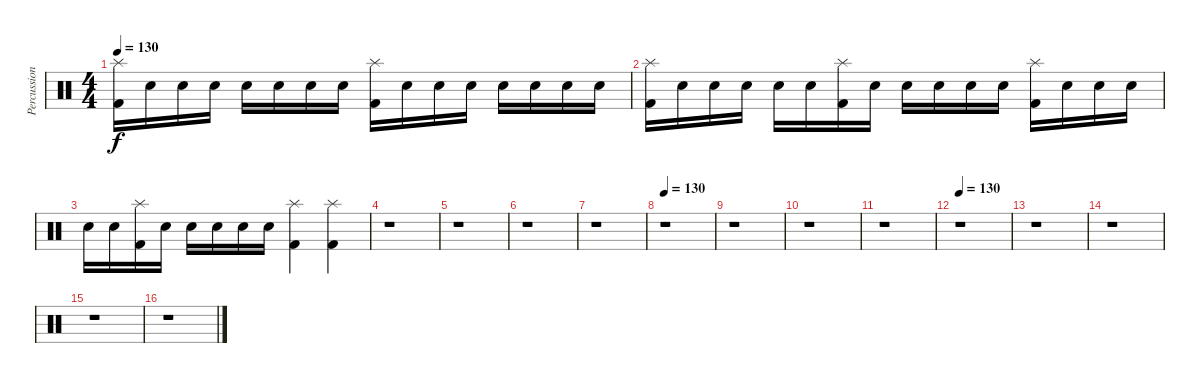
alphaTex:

\track ("Percussion" "Percussion") {instrument percussion}
\staff {score}
\articulation defaults
\ts (4 4)
\tempo 130
\clef neutral
\ks c
("Kick (hit) 2" "Splash (hit)").16{dy f} "Snare (hit) 2".16 "Snare (hit) 2".16 "Snare (hit) 2".16 "Snare (hit) 2".16 "Snare (hit) 2".16 "Snare (hit) 2".16 "Snare (hit) 2".16 ("Kick (hit) 2" "Splash (hit)").16 "Snare (hit) 2".16 "Snare (hit) 2".16 "Snare (hit) 2".16 "Snare (hit) 2".16 "Snare (hit) 2".16 "Snare (hit) 2".16 "Snare (hit) 2".16 |
("Kick (hit) 2" "Splash (hit)").16 "Snare (hit) 2".16 "Snare (hit) 2".16 "Snare (hit) 2".16 "Snare (hit) 2".16 "Snare (hit) 2".16 ("Kick (hit) 2" "Splash (hit)").16 "Snare (hit) 2".16 "Snare (hit) 2".16 "Snare (hit) 2".16 "Snare (hit) 2".16 "Snare (hit) 2".16 ("Kick (hit) 2" "Splash (hit)").16 "Snare (hit) 2".16 "Snare (hit) 2".16 "Snare (hit) 2".16 |
"Snare (hit) 2".16 "Snare (hit) 2".16 ("Kick (hit) 2" "Splash (hit)").16 "Snare (hit) 2".16 "Snare (hit) 2".16 "Snare (hit) 2".16 "Snare (hit) 2".16 "Snare (hit) 2".16 ("Kick (hit) 2" "Splash (hit)").4 ("Kick (hit) 2" "Splash (hit)").4 |
r.1 |
r.1 |
r.1 |
r.1 |
\tempo 130
r.1 |
r.1 |
r.1 |
r.1 |
\tempo 130
r.1 |
r.1 |
r.1 |
r.1 |
r.1
